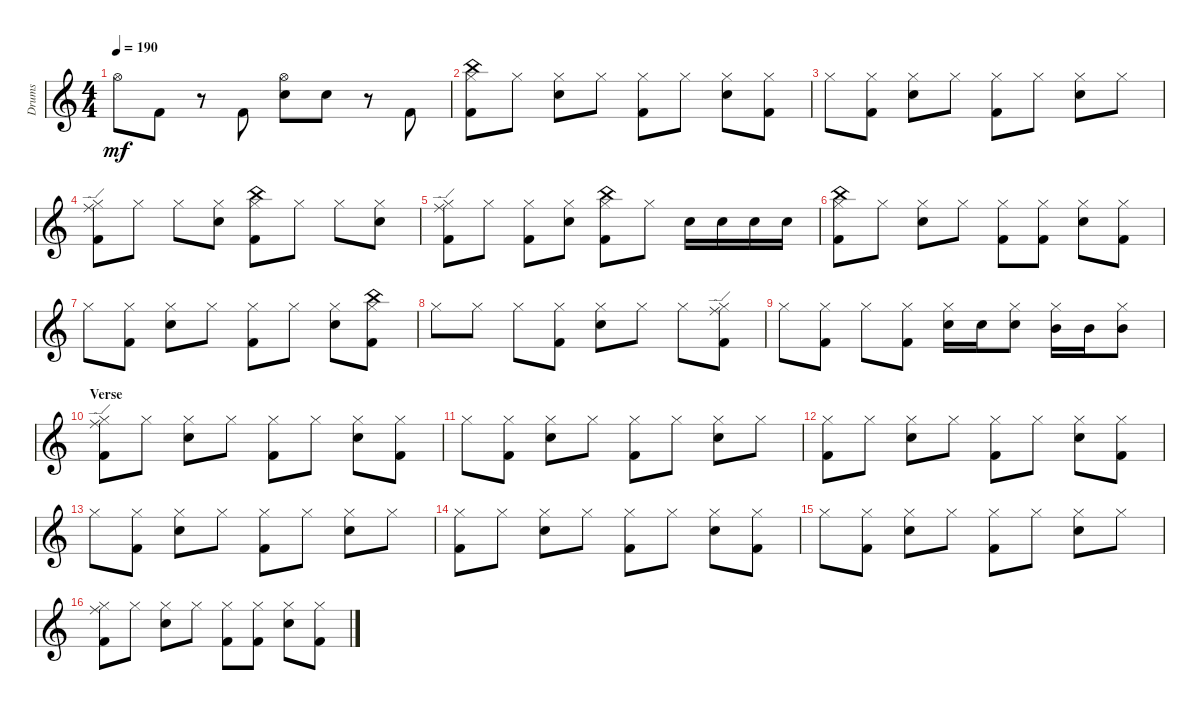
\defaultSystemsLayout 4
\bracketExtendMode groupsimilarinstruments
\otherSystemsTrackNameOrientation horizontal
\track ("Prakarsh" "Drums") {instrument percussion}
\staff {score}
\articulation defaults
\ts (4 4)
\tempo 190
\clef g2
\ks c "Hi-Hat (open)".8{dy mf beam Down} "Kick (hit) 2".8{beam Down}
r.8{beam Down} "Kick (hit) 2".8{beam Up} ("Hi-Hat (open)" "Snare (hit) 2").8{beam Down} "Snare (hit) 2".8{beam Down} r.8{beam Down} "Kick (hit) 2".8{beam Up} |
("Hi-Hat (closed)" "Kick (hit) 2" "China (hit)").8{beam Down} "Hi-Hat (closed)".8{beam Down} ("Hi-Hat (closed)" "Snare (hit) 2").8{beam Down} "Hi-Hat (closed)".8{beam Down} ("Hi-Hat (closed)" "Kick (hit) 2").8{beam Down} "Hi-Hat (closed)".8{beam Down} ("Hi-Hat (closed)" "Snare (hit) 2").8{beam Down} ("Hi-Hat (closed)" "Kick (hit) 2").8{beam Down} |
"Hi-Hat (closed)".8{beam Down} ("Hi-Hat (closed)" "Kick (hit) 2").8{beam Down} ("Hi-Hat (closed)" "Snare (hit) 2").8{beam Down} "Hi-Hat (closed)".8{beam Down} ("Hi-Hat (closed)" "Kick (hit) 2").8{beam Down} "Hi-Hat (closed)".8{beam Down} ("Hi-Hat (closed)" "Snare (hit) 2").8{beam Down} "Hi-Hat (closed)".8{beam Down} |
("Hi-Hat (closed)" "Kick (hit) 2" "Ride (edge)").8{beam Down} "Hi-Hat (closed)".8{beam Down} "Hi-Hat (closed)".8{beam Down} ("Hi-Hat (closed)" "Snare (hit) 2").8{beam Down} ("Hi-Hat (closed)" "Kick (hit) 2" "China (hit)").8{beam Down} "Hi-Hat (closed)".8{beam Down} "Hi-Hat (closed)".8{beam Down} ("Hi-Hat (closed)" "Snare (hit) 2").8{beam Down} |
("Hi-Hat (closed)" "Kick (hit) 2" "Ride (edge)").8{beam Down} "Hi-Hat (closed)".8{beam Down} ("Hi-Hat (closed)" "Kick (hit) 2").8{beam Down} ("Hi-Hat (closed)" "Snare (hit) 2").8{beam Down} ("Hi-Hat (closed)" "Kick (hit) 2" "China (hit)").8{beam Down} "Hi-Hat (closed)".8{beam Down} "Snare (hit) 2".16{beam Down} "Snare (hit) 2".16{beam Down} "Snare (hit) 2".16{beam Down} "Snare (hit) 2".16{beam Down} |
("Hi-Hat (closed)" "Kick (hit) 2" "China (hit)").8{beam Down} "Hi-Hat (closed)".8{beam Down} ("Hi-Hat (closed)" "Snare (hit) 2").8{beam Down} "Hi-Hat (closed)".8{beam Down} ("Hi-Hat (closed)" "Kick (hit) 2").8{beam Down} ("Hi-Hat (closed)" "Kick (hit) 2").8{beam Down} ("Hi-Hat (closed)" "Snare (hit) 2").8{beam Down} ("Hi-Hat (closed)" "Kick (hit) 2").8{beam Down} |
"Hi-Hat (closed)".8{beam Down} ("Hi-Hat (closed)" "Kick (hit) 2").8{beam Down} ("Hi-Hat (closed)" "Snare (hit) 2").8{beam Down} "Hi-Hat (closed)".8{beam Down} ("Hi-Hat (closed)" "Kick (hit) 2").8{beam Down} "Hi-Hat (closed)".8{beam Down} ("Hi-Hat (closed)" "Snare (hit) 2").8{beam Down} ("Hi-Hat (closed)" "Kick (hit) 2" "China (hit)").8{beam Down} |
"Hi-Hat (closed)".8{beam Down} "Hi-Hat (closed)".8{beam Down} "Hi-Hat (closed)".8{beam Down} ("Hi-Hat (closed)" "Kick (hit) 2").8{beam Down} ("Hi-Hat (closed)" "Snare (hit) 2").8{beam Down} "Hi-Hat (closed)".8{beam Down} "Hi-Hat (closed)".8{beam Down} ("Kick (hit) 2" "Hi-Hat (closed)" "Ride (edge)").8{beam Down} |
"Hi-Hat (closed)".8{beam Down} ("Hi-Hat (closed)" "Kick (hit) 2").8{beam Down} "Hi-Hat (closed)".8{beam Down} ("Hi-Hat (closed)" "Kick (hit) 2").8{beam Down} ("Hi-Hat (closed)" "Snare (hit) 2").16{beam Down} "Snare (hit) 2".16{beam Down} ("Hi-Hat (closed)" "Snare (hit) 2").8{beam Down} ("Hi-Hat (closed)" "Mid Tom (hit)").16{beam Down} "Mid Tom (hit)".16{beam Down} ("Hi-Hat (closed)" "Mid Tom (hit)").8{beam Down} |
\section ("" "Verse")
("Kick (hit) 2" "Hi-Hat (closed)" "Ride (edge)").8{beam Down} "Hi-Hat (closed)".8{beam Down} ("Hi-Hat (closed)" "Snare (hit) 2").8{beam Down} "Hi-Hat (closed)".8{beam Down} ("Hi-Hat (closed)" "Kick (hit) 2").8{beam Down} "Hi-Hat (closed)".8{beam Down} ("Hi-Hat (closed)" "Snare (hit) 2").8{beam Down} ("Hi-Hat (closed)" "Kick (hit) 2").8{beam Down} |
"Hi-Hat (closed)".8{beam Down} ("Hi-Hat (closed)" "Kick (hit) 2").8{beam Down} ("Hi-Hat (closed)" "Snare (hit) 2").8{beam Down} "Hi-Hat (closed)".8{beam Down} ("Hi-Hat (closed)" "Kick (hit) 2").8{beam Down} "Hi-Hat (closed)".8{beam Down} ("Hi-Hat (closed)" "Snare (hit) 2").8{beam Down} "Hi-Hat (closed)".8{beam Down} |
("Kick (hit) 2" "Hi-Hat (closed)").8{beam Down} "Hi-Hat (closed)".8{beam Down} ("Hi-Hat (closed)" "Snare (hit) 2").8{beam Down} "Hi-Hat (closed)".8{beam Down} ("Hi-Hat (closed)" "Kick (hit) 2").8{beam Down} "Hi-Hat (closed)".8{beam Down} ("Hi-Hat (closed)" "Snare (hit) 2").8{beam Down} ("Hi-Hat (closed)" "Kick (hit) 2").8{beam Down} |
"Hi-Hat (closed)".8{beam Down} ("Hi-Hat (closed)" "Kick (hit) 2").8{beam Down} ("Hi-Hat (closed)" "Snare (hit) 2").8{beam Down} "Hi-Hat (closed)".8{beam Down} ("Hi-Hat (closed)" "Kick (hit) 2").8{beam Down} "Hi-Hat (closed)".8{beam Down} ("Hi-Hat (closed)" "Snare (hit) 2").8{beam Down} "Hi-Hat (closed)".8{beam Down} |
("Kick (hit) 2" "Hi-Hat (closed)").8{beam Down} "Hi-Hat (closed)".8{beam Down} ("Hi-Hat (closed)" "Snare (hit) 2").8{beam Down} "Hi-Hat (closed)".8{beam Down} ("Hi-Hat (closed)" "Kick (hit) 2").8{beam Down} "Hi-Hat (closed)".8{beam Down} ("Hi-Hat (closed)" "Snare (hit) 2").8{beam Down} ("Hi-Hat (closed)" "Kick (hit) 2").8{beam Down} |
"Hi-Hat (closed)".8{beam Down} ("Hi-Hat (closed)" "Kick (hit) 2").8{beam Down} ("Hi-Hat (closed)" "Snare (hit) 2").8{beam Down} "Hi-Hat (closed)".8{beam Down} ("Hi-Hat (closed)" "Kick (hit) 2").8{beam Down} "Hi-Hat (closed)".8{beam Down} ("Hi-Hat (closed)" "Snare (hit) 2").8{beam Down} "Hi-Hat (closed)".8{beam Down} |
("Kick (hit) 2" "Hi-Hat (closed)" "Ride (middle)").8{beam Down} "Hi-Hat (closed)".8{beam Down} ("Hi-Hat (closed)" "Snare (hit) 2").8{beam Down} "Hi-Hat (closed)".8{beam Down} ("Hi-Hat (closed)" "Kick (hit) 2").8{beam Down} ("Hi-Hat (closed)" "Kick (hit) 2").8{beam Down} ("Hi-Hat (closed)" "Snare (hit) 2").8{beam Down} ("Hi-Hat (closed)" "Kick (hit) 2").8{beam Down}
